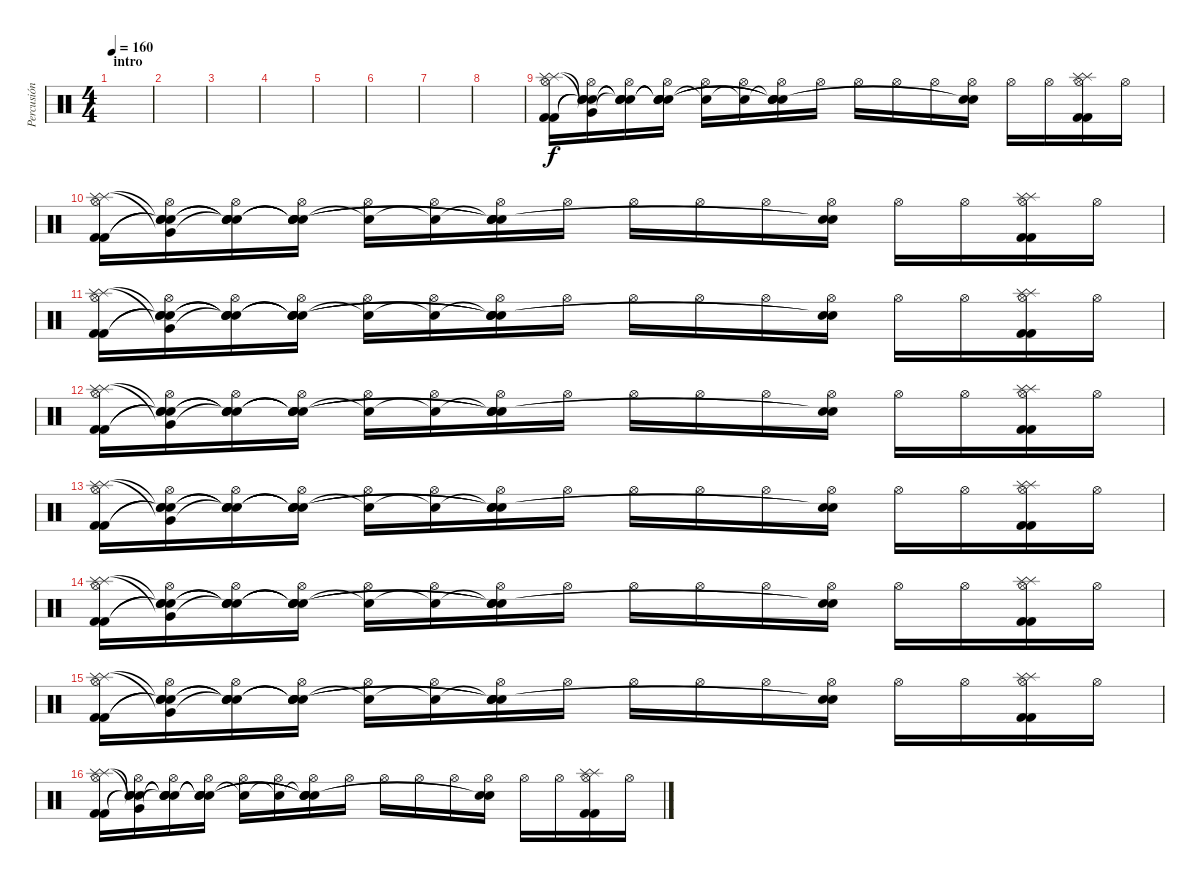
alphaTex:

\track ("Percusión" "Percusión") {instrument percussion}
\staff {score}
\articulation defaults
\ts (4 4)
\section ("" "intro")
\tempo 160
\clef neutral
\ks c
|
|
|
|
|
|
|
|
("Hi-Hat (open)" "Splash (hit)" "Splash (hit)" "Kick (hit) 2" "Kick (hit) 2").16 ("Hi-Hat (open)" "Snare (hit)"{t} "Very Low Tom (hit)"{t} "Snare (hit)"{t} "Snare (hit)"{t}).16 ("Hi-Hat (open)" "Snare (hit)"{t} "Snare (hit)"{t} "Snare (hit)"{t} "Snare (hit)"{t}).16 ("Hi-Hat (open)" "Snare (hit)"{t} "Snare (hit)"{t} "Snare (hit)"{t} "Snare (hit)"{t}).16 ("Hi-Hat (open)" "Snare (hit)"{t}).16 ("Hi-Hat (open)" "Snare (hit)"{t}).16 ("Hi-Hat (open)" "Snare (hit)"{t} "Snare (hit)"{t} "Snare (hit)"{t} "Snare (hit)"{t}).16 "Hi-Hat (open)".16 "Hi-Hat (open)".16 "Hi-Hat (open)".16 "Hi-Hat (open)".16 ("Hi-Hat (open)" "Snare (hit)"{t} "Snare (hit)"{t}).16 "Hi-Hat (open)".16 "Hi-Hat (open)".16 ("Hi-Hat (open)" "Splash (hit)" "Splash (hit)" "Kick (hit) 2" "Kick (hit) 2").16 "Hi-Hat (open)".16 |
("Hi-Hat (open)" "Splash (hit)" "Splash (hit)" "Kick (hit) 2" "Kick (hit) 2").16 ("Hi-Hat (open)" "Snare (hit)"{t} "Very Low Tom (hit)"{t} "Snare (hit)"{t} "Snare (hit)"{t}).16 ("Hi-Hat (open)" "Snare (hit)"{t} "Snare (hit)"{t} "Snare (hit)"{t} "Snare (hit)"{t}).16 ("Hi-Hat (open)" "Snare (hit)"{t} "Snare (hit)"{t} "Snare (hit)"{t} "Snare (hit)"{t}).16 ("Hi-Hat (open)" "Snare (hit)"{t}).16 ("Hi-Hat (open)" "Snare (hit)"{t}).16 ("Hi-Hat (open)" "Snare (hit)"{t} "Snare (hit)"{t} "Snare (hit)"{t} "Snare (hit)"{t}).16 "Hi-Hat (open)".16 "Hi-Hat (open)".16 "Hi-Hat (open)".16 "Hi-Hat (open)".16 ("Hi-Hat (open)" "Snare (hit)"{t} "Snare (hit)"{t}).16 "Hi-Hat (open)".16 "Hi-Hat (open)".16 ("Hi-Hat (open)" "Splash (hit)" "Splash (hit)" "Kick (hit) 2" "Kick (hit) 2").16 "Hi-Hat (open)".16 |
("Hi-Hat (open)" "Splash (hit)" "Splash (hit)" "Kick (hit) 2" "Kick (hit) 2").16 ("Hi-Hat (open)" "Snare (hit)"{t} "Very Low Tom (hit)"{t} "Snare (hit)"{t} "Snare (hit)"{t}).16 ("Hi-Hat (open)" "Snare (hit)"{t} "Snare (hit)"{t} "Snare (hit)"{t} "Snare (hit)"{t}).16 ("Hi-Hat (open)" "Snare (hit)"{t} "Snare (hit)"{t} "Snare (hit)"{t} "Snare (hit)"{t}).16 ("Hi-Hat (open)" "Snare (hit)"{t}).16 ("Hi-Hat (open)" "Snare (hit)"{t}).16 ("Hi-Hat (open)" "Snare (hit)"{t} "Snare (hit)"{t} "Snare (hit)"{t} "Snare (hit)"{t}).16 "Hi-Hat (open)".16 "Hi-Hat (open)".16 "Hi-Hat (open)".16 "Hi-Hat (open)".16 ("Hi-Hat (open)" "Snare (hit)"{t} "Snare (hit)"{t}).16 "Hi-Hat (open)".16 "Hi-Hat (open)".16 ("Hi-Hat (open)" "Splash (hit)" "Splash (hit)" "Kick (hit) 2" "Kick (hit) 2").16 "Hi-Hat (open)".16 |
("Hi-Hat (open)" "Splash (hit)" "Splash (hit)" "Kick (hit) 2" "Kick (hit) 2").16 ("Hi-Hat (open)" "Snare (hit)"{t} "Very Low Tom (hit)"{t} "Snare (hit)"{t} "Snare (hit)"{t}).16 ("Hi-Hat (open)" "Snare (hit)"{t} "Snare (hit)"{t} "Snare (hit)"{t} "Snare (hit)"{t}).16 ("Hi-Hat (open)" "Snare (hit)"{t} "Snare (hit)"{t} "Snare (hit)"{t} "Snare (hit)"{t}).16 ("Hi-Hat (open)" "Snare (hit)"{t}).16 ("Hi-Hat (open)" "Snare (hit)"{t}).16 ("Hi-Hat (open)" "Snare (hit)"{t} "Snare (hit)"{t} "Snare (hit)"{t} "Snare (hit)"{t}).16 "Hi-Hat (open)".16 "Hi-Hat (open)".16 "Hi-Hat (open)".16 "Hi-Hat (open)".16 ("Hi-Hat (open)" "Snare (hit)"{t} "Snare (hit)"{t}).16 "Hi-Hat (open)".16 "Hi-Hat (open)".16 ("Hi-Hat (open)" "Splash (hit)" "Splash (hit)" "Kick (hit) 2" "Kick (hit) 2").16 "Hi-Hat (open)".16 |
("Hi-Hat (open)" "Splash (hit)" "Splash (hit)" "Kick (hit) 2" "Kick (hit) 2").16 ("Hi-Hat (open)" "Snare (hit)"{t} "Very Low Tom (hit)"{t} "Snare (hit)"{t} "Snare (hit)"{t}).16 ("Hi-Hat (open)" "Snare (hit)"{t} "Snare (hit)"{t} "Snare (hit)"{t} "Snare (hit)"{t}).16 ("Hi-Hat (open)" "Snare (hit)"{t} "Snare (hit)"{t} "Snare (hit)"{t} "Snare (hit)"{t}).16 ("Hi-Hat (open)" "Snare (hit)"{t}).16 ("Hi-Hat (open)" "Snare (hit)"{t}).16 ("Hi-Hat (open)" "Snare (hit)"{t} "Snare (hit)"{t} "Snare (hit)"{t} "Snare (hit)"{t}).16 "Hi-Hat (open)".16 "Hi-Hat (open)".16 "Hi-Hat (open)".16 "Hi-Hat (open)".16 ("Hi-Hat (open)" "Snare (hit)"{t} "Snare (hit)"{t}).16 "Hi-Hat (open)".16 "Hi-Hat (open)".16 ("Hi-Hat (open)" "Splash (hit)" "Splash (hit)" "Kick (hit) 2" "Kick (hit) 2").16 "Hi-Hat (open)".16 |
("Hi-Hat (open)" "Splash (hit)" "Splash (hit)" "Kick (hit) 2" "Kick (hit) 2").16 ("Hi-Hat (open)" "Snare (hit)"{t} "Very Low Tom (hit)"{t} "Snare (hit)"{t} "Snare (hit)"{t}).16 ("Hi-Hat (open)" "Snare (hit)"{t} "Snare (hit)"{t} "Snare (hit)"{t} "Snare (hit)"{t}).16 ("Hi-Hat (open)" "Snare (hit)"{t} "Snare (hit)"{t} "Snare (hit)"{t} "Snare (hit)"{t}).16 ("Hi-Hat (open)" "Snare (hit)"{t}).16 ("Hi-Hat (open)" "Snare (hit)"{t}).16 ("Hi-Hat (open)" "Snare (hit)"{t} "Snare (hit)"{t} "Snare (hit)"{t} "Snare (hit)"{t}).16 "Hi-Hat (open)".16 "Hi-Hat (open)".16 "Hi-Hat (open)".16 "Hi-Hat (open)".16 ("Hi-Hat (open)" "Snare (hit)"{t} "Snare (hit)"{t}).16 "Hi-Hat (open)".16 "Hi-Hat (open)".16 ("Hi-Hat (open)" "Splash (hit)" "Splash (hit)" "Kick (hit) 2" "Kick (hit) 2").16 "Hi-Hat (open)".16 |
("Hi-Hat (open)" "Splash (hit)" "Splash (hit)" "Kick (hit) 2" "Kick (hit) 2").16 ("Hi-Hat (open)" "Snare (hit)"{t} "Very Low Tom (hit)"{t} "Snare (hit)"{t} "Snare (hit)"{t}).16 ("Hi-Hat (open)" "Snare (hit)"{t} "Snare (hit)"{t} "Snare (hit)"{t} "Snare (hit)"{t}).16 ("Hi-Hat (open)" "Snare (hit)"{t} "Snare (hit)"{t} "Snare (hit)"{t} "Snare (hit)"{t}).16 ("Hi-Hat (open)" "Snare (hit)"{t}).16 ("Hi-Hat (open)" "Snare (hit)"{t}).16 ("Hi-Hat (open)" "Snare (hit)"{t} "Snare (hit)"{t} "Snare (hit)"{t} "Snare (hit)"{t}).16 "Hi-Hat (open)".16 "Hi-Hat (open)".16 "Hi-Hat (open)".16 "Hi-Hat (open)".16 ("Hi-Hat (open)" "Snare (hit)"{t} "Snare (hit)"{t}).16 "Hi-Hat (open)".16 "Hi-Hat (open)".16 ("Hi-Hat (open)" "Splash (hit)" "Splash (hit)" "Kick (hit) 2" "Kick (hit) 2").16 "Hi-Hat (open)".16 |
("Hi-Hat (open)" "Splash (hit)" "Splash (hit)" "Kick (hit) 2" "Kick (hit) 2").16 ("Hi-Hat (open)" "Snare (hit)"{t} "Very Low Tom (hit)"{t} "Snare (hit)"{t} "Snare (hit)"{t}).16 ("Hi-Hat (open)" "Snare (hit)"{t} "Snare (hit)"{t} "Snare (hit)"{t} "Snare (hit)"{t}).16 ("Hi-Hat (open)" "Snare (hit)"{t} "Snare (hit)"{t} "Snare (hit)"{t} "Snare (hit)"{t}).16 ("Hi-Hat (open)" "Snare (hit)"{t}).16 ("Hi-Hat (open)" "Snare (hit)"{t}).16 ("Hi-Hat (open)" "Snare (hit)"{t} "Snare (hit)"{t} "Snare (hit)"{t} "Snare (hit)"{t}).16 "Hi-Hat (open)".16 "Hi-Hat (open)".16 "Hi-Hat (open)".16 "Hi-Hat (open)".16 ("Hi-Hat (open)" "Snare (hit)"{t} "Snare (hit)"{t}).16 "Hi-Hat (open)".16 "Hi-Hat (open)".16 ("Hi-Hat (open)" "Splash (hit)" "Splash (hit)" "Kick (hit) 2" "Kick (hit) 2").16 "Hi-Hat (open)".16
